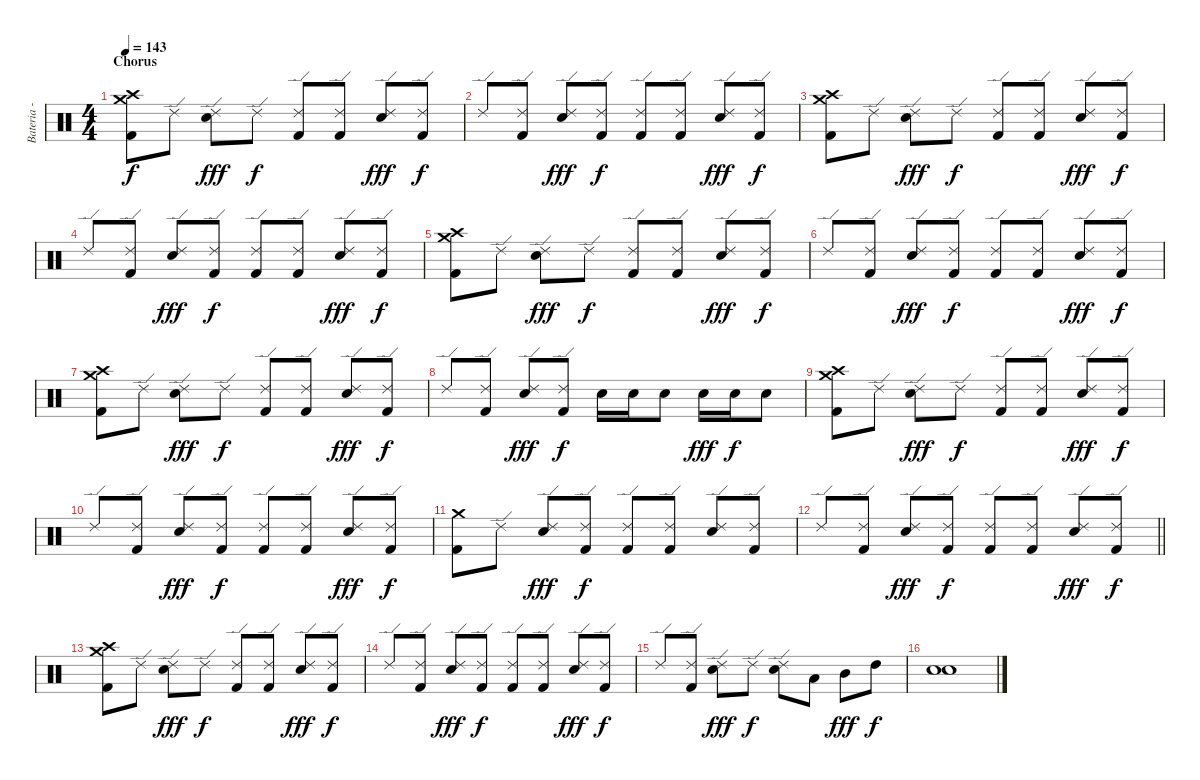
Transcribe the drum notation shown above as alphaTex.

\track ("Bateria - Larzon" "Bateria - ") {instrument percussion}
\staff {score}
\articulation defaults
\ts (4 4)
\section ("" "Chorus")
\tempo 143
\clef neutral
\ks c
("Kick (hit) 2" "Crash medium (hit)" "Crash high (hit)").8{dy f} "Ride (edge) 2".8 ("Electric Snare (hit)" "Ride (edge) 2").8{dy fff} "Ride (edge) 2".8{dy f} ("Kick (hit) 2" "Ride (edge) 2").8 ("Kick (hit) 2" "Ride (edge) 2").8 ("Electric Snare (hit)" "Ride (edge) 2").8{dy fff} ("Kick (hit) 2" "Ride (edge) 2").8{dy f} |
"Ride (edge) 2".8 ("Kick (hit) 2" "Ride (edge) 2").8 ("Electric Snare (hit)" "Ride (edge) 2").8{dy fff} ("Kick (hit) 2" "Ride (edge) 2").8{dy f} ("Kick (hit) 2" "Ride (edge) 2").8 ("Kick (hit) 2" "Ride (edge) 2").8 ("Electric Snare (hit)" "Ride (edge) 2").8{dy fff} ("Kick (hit) 2" "Ride (edge) 2").8{dy f} |
("Kick (hit) 2" "Crash medium (hit)" "Crash high (hit)").8 "Ride (edge) 2".8 ("Electric Snare (hit)" "Ride (edge) 2").8{dy fff} "Ride (edge) 2".8{dy f} ("Kick (hit) 2" "Ride (edge) 2").8 ("Kick (hit) 2" "Ride (edge) 2").8 ("Electric Snare (hit)" "Ride (edge) 2").8{dy fff} ("Kick (hit) 2" "Ride (edge) 2").8{dy f} |
"Ride (edge) 2".8 ("Kick (hit) 2" "Ride (edge) 2").8 ("Electric Snare (hit)" "Ride (edge) 2").8{dy fff} ("Kick (hit) 2" "Ride (edge) 2").8{dy f} ("Kick (hit) 2" "Ride (edge) 2").8 ("Kick (hit) 2" "Ride (edge) 2").8 ("Electric Snare (hit)" "Ride (edge) 2").8{dy fff} ("Kick (hit) 2" "Ride (edge) 2").8{dy f} |
("Kick (hit) 2" "Crash medium (hit)" "Crash high (hit)").8 "Ride (edge) 2".8 ("Electric Snare (hit)" "Ride (edge) 2").8{dy fff} "Ride (edge) 2".8{dy f} ("Kick (hit) 2" "Ride (edge) 2").8 ("Kick (hit) 2" "Ride (edge) 2").8 ("Electric Snare (hit)" "Ride (edge) 2").8{dy fff} ("Kick (hit) 2" "Ride (edge) 2").8{dy f} |
"Ride (edge) 2".8 ("Kick (hit) 2" "Ride (edge) 2").8 ("Electric Snare (hit)" "Ride (edge) 2").8{dy fff} ("Kick (hit) 2" "Ride (edge) 2").8{dy f} ("Kick (hit) 2" "Ride (edge) 2").8 ("Kick (hit) 2" "Ride (edge) 2").8 ("Electric Snare (hit)" "Ride (edge) 2").8{dy fff} ("Kick (hit) 2" "Ride (edge) 2").8{dy f} |
("Kick (hit) 2" "Crash medium (hit)" "Crash high (hit)").8 "Ride (edge) 2".8 ("Electric Snare (hit)" "Ride (edge) 2").8{dy fff} "Ride (edge) 2".8{dy f} ("Kick (hit) 2" "Ride (edge) 2").8 ("Kick (hit) 2" "Ride (edge) 2").8 ("Electric Snare (hit)" "Ride (edge) 2").8{dy fff} ("Kick (hit) 2" "Ride (edge) 2").8{dy f} |
"Ride (edge) 2".8 ("Kick (hit) 2" "Ride (edge) 2").8 ("Electric Snare (hit)" "Ride (edge) 2").8{dy fff} ("Kick (hit) 2" "Ride (edge) 2").8{dy f} "Electric Snare (hit)".16 "Electric Snare (hit)".16 "Electric Snare (hit)".8 "Electric Snare (hit)".16{dy fff} "Electric Snare (hit)".16{dy f} "Electric Snare (hit)".8 |
("Kick (hit) 2" "Crash medium (hit)" "Crash high (hit)").8 "Ride (edge) 2".8 ("Electric Snare (hit)" "Ride (edge) 2").8{dy fff} "Ride (edge) 2".8{dy f} ("Kick (hit) 2" "Ride (edge) 2").8 ("Kick (hit) 2" "Ride (edge) 2").8 ("Electric Snare (hit)" "Ride (edge) 2").8{dy fff} ("Kick (hit) 2" "Ride (edge) 2").8{dy f} |
"Ride (edge) 2".8 ("Kick (hit) 2" "Ride (edge) 2").8 ("Electric Snare (hit)" "Ride (edge) 2").8{dy fff} ("Kick (hit) 2" "Ride (edge) 2").8{dy f} ("Kick (hit) 2" "Ride (edge) 2").8 ("Kick (hit) 2" "Ride (edge) 2").8 ("Electric Snare (hit)" "Ride (edge) 2").8{dy fff} ("Kick (hit) 2" "Ride (edge) 2").8{dy f} |
("Kick (hit) 2" "Crash medium (hit)").8 "Ride (edge) 2".8 ("Electric Snare (hit)" "Ride (edge) 2").8{dy fff} ("Kick (hit) 2" "Ride (edge) 2").8{dy f} ("Kick (hit) 2" "Ride (edge) 2").8 ("Kick (hit) 2" "Ride (edge) 2").8 ("Electric Snare (hit)" "Ride (edge) 2").8 ("Kick (hit) 2" "Ride (edge) 2").8 |
\barLineRight lightlight "Ride (edge) 2".8
("Kick (hit) 2" "Ride (edge) 2").8 ("Electric Snare (hit)" "Ride (edge) 2").8{dy fff} ("Kick (hit) 2" "Ride (edge) 2").8{dy f} ("Kick (hit) 2" "Ride (edge) 2").8 ("Kick (hit) 2" "Ride (edge) 2").8 ("Electric Snare (hit)" "Ride (edge) 2").8{dy fff} ("Kick (hit) 2" "Ride (edge) 2").8{dy f} |
("Kick (hit) 2" "Crash medium (hit)" "Crash high (hit)").8 "Ride (edge) 2".8 ("Electric Snare (hit)" "Ride (edge) 2").8{dy fff} "Ride (edge) 2".8{dy f} ("Kick (hit) 2" "Ride (edge) 2").8 ("Kick (hit) 2" "Ride (edge) 2").8 ("Electric Snare (hit)" "Ride (edge) 2").8{dy fff} ("Kick (hit) 2" "Ride (edge) 2").8{dy f} |
"Ride (edge) 2".8 ("Kick (hit) 2" "Ride (edge) 2").8 ("Electric Snare (hit)" "Ride (edge) 2").8{dy fff} ("Kick (hit) 2" "Ride (edge) 2").8{dy f} ("Kick (hit) 2" "Ride (edge) 2").8 ("Kick (hit) 2" "Ride (edge) 2").8 ("Electric Snare (hit)" "Ride (edge) 2").8{dy fff} ("Kick (hit) 2" "Ride (edge) 2").8{dy f} |
"Ride (edge) 2".8 ("Kick (hit) 2" "Ride (edge) 2").8 ("Electric Snare (hit)" "Ride (edge) 2").8{dy fff} "Ride (edge) 2".8{dy f} ("Electric Snare (hit)" "Ride (edge) 2").8 "Low Tom (hit)".8 "Mid Tom (hit)".8{dy fff} "High Tom (hit)".8{dy f} |
("Electric Snare (hit)" "Electric Snare (hit)").1
